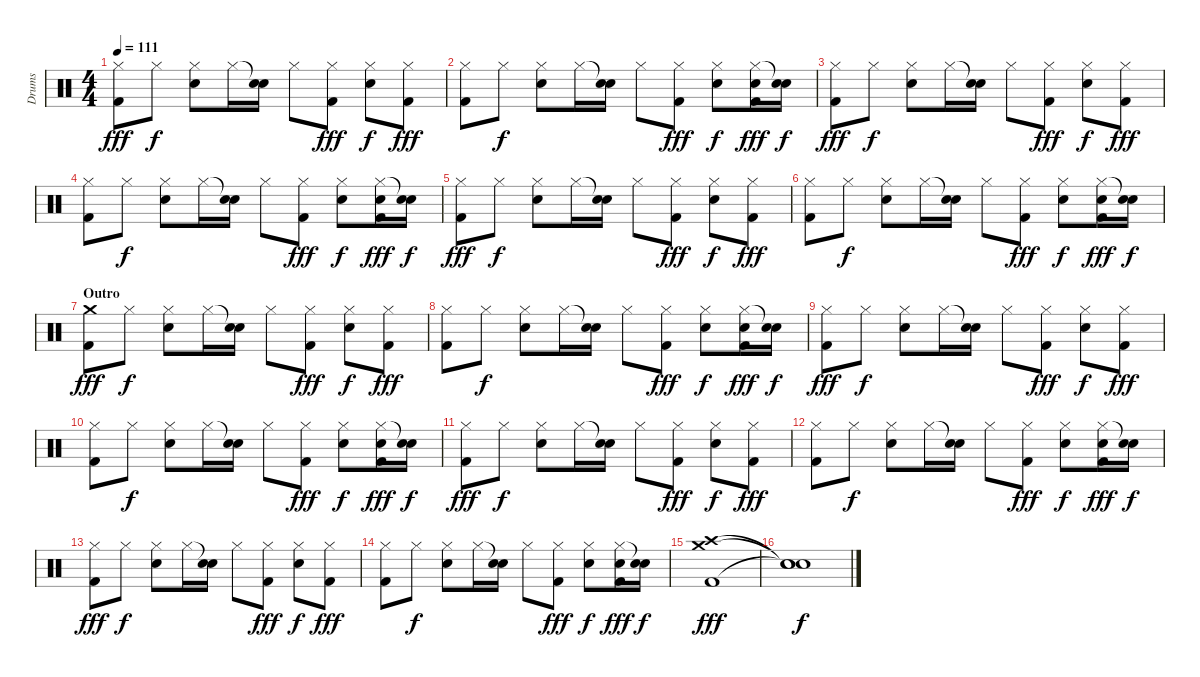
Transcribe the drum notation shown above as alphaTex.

\track ("Drums" "Drums") {instrument percussion}
\staff {score}
\articulation defaults
\ts (4 4)
\tempo 111
\clef neutral
\ks c
("Hi-Hat (closed)" "Kick (hit) 2").8{dy fff} "Hi-Hat (closed)".8{dy f} ("Hi-Hat (closed)" "Snare (hit) 2").8 "Hi-Hat (closed)".16 ("Snare (hit)"{t} "Snare (hit) 2").16 "Hi-Hat (closed)".8 ("Hi-Hat (closed)" "Kick (hit) 2").8{dy fff} ("Hi-Hat (closed)" "Snare (hit) 2").8{dy f} ("Hi-Hat (closed)" "Kick (hit) 2").8{dy fff} |
("Hi-Hat (closed)" "Kick (hit) 2").8 "Hi-Hat (closed)".8{dy f} ("Hi-Hat (closed)" "Snare (hit) 2").8 "Hi-Hat (closed)".16 ("Snare (hit)"{t} "Snare (hit) 2").16 "Hi-Hat (closed)".8 ("Hi-Hat (closed)" "Kick (hit) 2").8{dy fff} ("Hi-Hat (closed)" "Snare (hit) 2").8{dy f} ("Hi-Hat (closed)" "Snare (hit) 2" "Kick (hit) 2").16{dy fff} ("Snare (hit)"{t} "Snare (hit) 2").16{dy f} |
("Hi-Hat (closed)" "Kick (hit) 2").8{dy fff} "Hi-Hat (closed)".8{dy f} ("Hi-Hat (closed)" "Snare (hit) 2").8 "Hi-Hat (closed)".16 ("Snare (hit)"{t} "Snare (hit) 2").16 "Hi-Hat (closed)".8 ("Hi-Hat (closed)" "Kick (hit) 2").8{dy fff} ("Hi-Hat (closed)" "Snare (hit) 2").8{dy f} ("Hi-Hat (closed)" "Kick (hit) 2").8{dy fff} |
("Hi-Hat (closed)" "Kick (hit) 2").8 "Hi-Hat (closed)".8{dy f} ("Hi-Hat (closed)" "Snare (hit) 2").8 "Hi-Hat (closed)".16 ("Snare (hit)"{t} "Snare (hit) 2").16 "Hi-Hat (closed)".8 ("Hi-Hat (closed)" "Kick (hit) 2").8{dy fff} ("Hi-Hat (closed)" "Snare (hit) 2").8{dy f} ("Hi-Hat (closed)" "Snare (hit) 2" "Kick (hit) 2").16{dy fff} ("Snare (hit)"{t} "Snare (hit) 2").16{dy f} |
("Hi-Hat (closed)" "Kick (hit) 2").8{dy fff} "Hi-Hat (closed)".8{dy f} ("Hi-Hat (closed)" "Snare (hit) 2").8 "Hi-Hat (closed)".16 ("Snare (hit)"{t} "Snare (hit) 2").16 "Hi-Hat (closed)".8 ("Hi-Hat (closed)" "Kick (hit) 2").8{dy fff} ("Hi-Hat (closed)" "Snare (hit) 2").8{dy f} ("Hi-Hat (closed)" "Kick (hit) 2").8{dy fff} |
("Hi-Hat (closed)" "Kick (hit) 2").8 "Hi-Hat (closed)".8{dy f} ("Hi-Hat (closed)" "Snare (hit) 2").8 "Hi-Hat (closed)".16 ("Snare (hit)"{t} "Snare (hit) 2").16 "Hi-Hat (closed)".8 ("Hi-Hat (closed)" "Kick (hit) 2").8{dy fff} ("Hi-Hat (closed)" "Snare (hit) 2").8{dy f} ("Hi-Hat (closed)" "Snare (hit) 2" "Kick (hit) 2").16{dy fff} ("Snare (hit)"{t} "Snare (hit) 2").16{dy f} |
\section ("" "Outro")
("Crash medium (hit)" "Kick (hit) 2").8{dy fff} "Hi-Hat (closed)".8{dy f} ("Hi-Hat (closed)" "Snare (hit) 2").8 "Hi-Hat (closed)".16 ("Snare (hit)"{t} "Snare (hit) 2").16 "Hi-Hat (closed)".8 ("Hi-Hat (closed)" "Kick (hit) 2").8{dy fff} ("Hi-Hat (closed)" "Snare (hit) 2").8{dy f} ("Hi-Hat (closed)" "Kick (hit) 2").8{dy fff} |
("Hi-Hat (closed)" "Kick (hit) 2").8 "Hi-Hat (closed)".8{dy f} ("Hi-Hat (closed)" "Snare (hit) 2").8 "Hi-Hat (closed)".16 ("Snare (hit)"{t} "Snare (hit) 2").16 "Hi-Hat (closed)".8 ("Hi-Hat (closed)" "Kick (hit) 2").8{dy fff} ("Hi-Hat (closed)" "Snare (hit) 2").8{dy f} ("Hi-Hat (closed)" "Snare (hit) 2" "Kick (hit) 2").16{dy fff} ("Snare (hit)"{t} "Snare (hit) 2").16{dy f} |
("Hi-Hat (closed)" "Kick (hit) 2").8{dy fff} "Hi-Hat (closed)".8{dy f} ("Hi-Hat (closed)" "Snare (hit) 2").8 "Hi-Hat (closed)".16 ("Snare (hit)"{t} "Snare (hit) 2").16 "Hi-Hat (closed)".8 ("Hi-Hat (closed)" "Kick (hit) 2").8{dy fff} ("Hi-Hat (closed)" "Snare (hit) 2").8{dy f} ("Hi-Hat (closed)" "Kick (hit) 2").8{dy fff} |
("Hi-Hat (closed)" "Kick (hit) 2").8 "Hi-Hat (closed)".8{dy f} ("Hi-Hat (closed)" "Snare (hit) 2").8 "Hi-Hat (closed)".16 ("Snare (hit)"{t} "Snare (hit) 2").16 "Hi-Hat (closed)".8 ("Hi-Hat (closed)" "Kick (hit) 2").8{dy fff} ("Hi-Hat (closed)" "Snare (hit) 2").8{dy f} ("Hi-Hat (closed)" "Snare (hit) 2" "Kick (hit) 2").16{dy fff} ("Snare (hit)"{t} "Snare (hit) 2").16{dy f} |
("Hi-Hat (closed)" "Kick (hit) 2").8{dy fff} "Hi-Hat (closed)".8{dy f} ("Hi-Hat (closed)" "Snare (hit) 2").8 "Hi-Hat (closed)".16 ("Snare (hit)"{t} "Snare (hit) 2").16 "Hi-Hat (closed)".8 ("Hi-Hat (closed)" "Kick (hit) 2").8{dy fff} ("Hi-Hat (closed)" "Snare (hit) 2").8{dy f} ("Hi-Hat (closed)" "Kick (hit) 2").8{dy fff} |
("Hi-Hat (closed)" "Kick (hit) 2").8 "Hi-Hat (closed)".8{dy f} ("Hi-Hat (closed)" "Snare (hit) 2").8 "Hi-Hat (closed)".16 ("Snare (hit)"{t} "Snare (hit) 2").16 "Hi-Hat (closed)".8 ("Hi-Hat (closed)" "Kick (hit) 2").8{dy fff} ("Hi-Hat (closed)" "Snare (hit) 2").8{dy f} ("Hi-Hat (closed)" "Snare (hit) 2" "Kick (hit) 2").16{dy fff} ("Snare (hit)"{t} "Snare (hit) 2").16{dy f} |
("Hi-Hat (closed)" "Kick (hit) 2").8{dy fff} "Hi-Hat (closed)".8{dy f} ("Hi-Hat (closed)" "Snare (hit) 2").8 "Hi-Hat (closed)".16 ("Snare (hit)"{t} "Snare (hit) 2").16 "Hi-Hat (closed)".8 ("Hi-Hat (closed)" "Kick (hit) 2").8{dy fff} ("Hi-Hat (closed)" "Snare (hit) 2").8{dy f} ("Hi-Hat (closed)" "Kick (hit) 2").8{dy fff} |
("Hi-Hat (closed)" "Kick (hit) 2").8 "Hi-Hat (closed)".8{dy f} ("Hi-Hat (closed)" "Snare (hit) 2").8 "Hi-Hat (closed)".16 ("Snare (hit)"{t} "Snare (hit) 2").16 "Hi-Hat (closed)".8 ("Hi-Hat (closed)" "Kick (hit) 2").8{dy fff} ("Hi-Hat (closed)" "Snare (hit) 2").8{dy f} ("Hi-Hat (closed)" "Snare (hit) 2" "Kick (hit) 2").16{dy fff} ("Snare (hit)"{t} "Snare (hit) 2").16{dy f} |
("Crash medium (hit)" "Crash high (hit)" "Kick (hit) 2").1{dy fff} |
("Snare (hit)"{t} "Snare (hit)"{t} "Snare (hit)"{t}).1{dy f}
